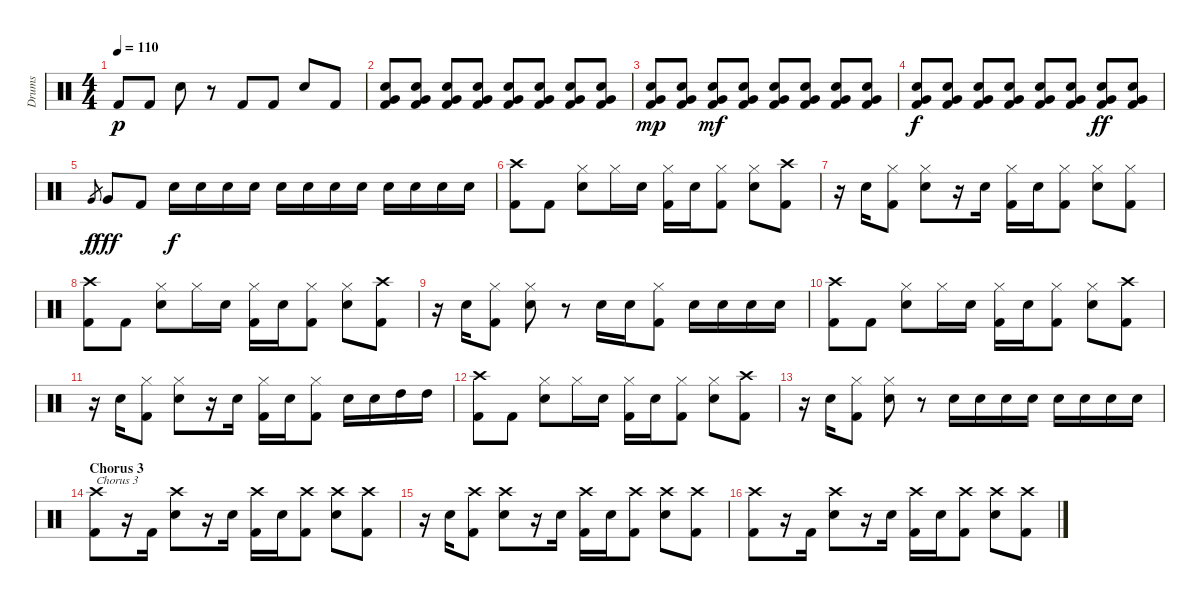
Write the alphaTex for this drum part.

\track ("Drums" "Drums") {instrument percussion}
\staff {score}
\articulation defaults
\ts (4 4)
\tempo 110
\clef neutral
\ks c "Kick (hit) 2".8{dy p} "Kick (hit) 2".8 "Electric Snare (hit)".8
r.8 "Kick (hit) 2".8 "Kick (hit) 2".8 "Electric Snare (hit)".8 "Kick (hit) 2".8 |
("Electric Snare (hit)" "Very Low Tom (hit)" "Kick (hit) 2").8 ("Electric Snare (hit)" "Very Low Tom (hit)" "Kick (hit) 2").8 ("Electric Snare (hit)" "Very Low Tom (hit)" "Kick (hit) 2").8 ("Electric Snare (hit)" "Very Low Tom (hit)" "Kick (hit) 2").8 ("Electric Snare (hit)" "Very Low Tom (hit)" "Kick (hit) 2").8 ("Electric Snare (hit)" "Very Low Tom (hit)" "Kick (hit) 2").8 ("Electric Snare (hit)" "Very Low Tom (hit)" "Kick (hit) 2").8 ("Electric Snare (hit)" "Very Low Tom (hit)" "Kick (hit) 2").8 |
("Electric Snare (hit)" "Very Low Tom (hit)" "Kick (hit) 2").8{dy mp} ("Electric Snare (hit)" "Very Low Tom (hit)" "Kick (hit) 2").8 ("Electric Snare (hit)" "Very Low Tom (hit)" "Kick (hit) 2").8{dy mf} ("Electric Snare (hit)" "Very Low Tom (hit)" "Kick (hit) 2").8 ("Electric Snare (hit)" "Very Low Tom (hit)" "Kick (hit) 2").8 ("Electric Snare (hit)" "Very Low Tom (hit)" "Kick (hit) 2").8 ("Electric Snare (hit)" "Very Low Tom (hit)" "Kick (hit) 2").8 ("Electric Snare (hit)" "Very Low Tom (hit)" "Kick (hit) 2").8 |
("Electric Snare (hit)" "Very Low Tom (hit)" "Kick (hit) 2").8{dy f} ("Electric Snare (hit)" "Very Low Tom (hit)" "Kick (hit) 2").8 ("Electric Snare (hit)" "Very Low Tom (hit)" "Kick (hit) 2").8 ("Electric Snare (hit)" "Very Low Tom (hit)" "Kick (hit) 2").8 ("Electric Snare (hit)" "Very Low Tom (hit)" "Kick (hit) 2").8 ("Electric Snare (hit)" "Very Low Tom (hit)" "Kick (hit) 2").8 ("Electric Snare (hit)" "Very Low Tom (hit)" "Kick (hit) 2").8{dy ff} ("Electric Snare (hit)" "Very Low Tom (hit)" "Kick (hit) 2").8 |
"Very Low Tom (hit)".8{gr dy f} "Very Low Tom (hit)".8{dy fff} "Kick (hit) 2".8 "Electric Snare (hit)".16{dy f} "Electric Snare (hit)".16 "Electric Snare (hit)".16 "Electric Snare (hit)".16 "Electric Snare (hit)".16 "Electric Snare (hit)".16 "Electric Snare (hit)".16 "Electric Snare (hit)".16 "Electric Snare (hit)".16 "Electric Snare (hit)".16 "Electric Snare (hit)".16 "Electric Snare (hit)".16 |
("Crash high (hit)" "Kick (hit) 2").8 "Kick (hit) 2".8 ("Hi-Hat (closed)" "Electric Snare (hit)").8 "Hi-Hat (closed)".16 "Electric Snare (hit)".16 ("Hi-Hat (closed)" "Kick (hit) 2").16 "Electric Snare (hit)".16 ("Hi-Hat (closed)" "Kick (hit) 2").8 ("Hi-Hat (closed)" "Electric Snare (hit)").8 ("Crash high (hit)" "Kick (hit) 2").8 |
r.16 "Electric Snare (hit)".16 ("Hi-Hat (closed)" "Kick (hit) 2").8 ("Hi-Hat (closed)" "Electric Snare (hit)").8 r.16 "Electric Snare (hit)".16 ("Hi-Hat (closed)" "Kick (hit) 2").16 "Electric Snare (hit)".16 ("Hi-Hat (closed)" "Kick (hit) 2").8 ("Hi-Hat (closed)" "Electric Snare (hit)").8 ("Hi-Hat (closed)" "Kick (hit) 2").8 |
("Crash high (hit)" "Kick (hit) 2").8 "Kick (hit) 2".8 ("Hi-Hat (closed)" "Electric Snare (hit)").8 "Hi-Hat (closed)".16 "Electric Snare (hit)".16 ("Hi-Hat (closed)" "Kick (hit) 2").16 "Electric Snare (hit)".16 ("Hi-Hat (closed)" "Kick (hit) 2").8 ("Hi-Hat (closed)" "Electric Snare (hit)").8 ("Crash high (hit)" "Kick (hit) 2").8 |
r.16 "Electric Snare (hit)".16 ("Hi-Hat (closed)" "Kick (hit) 2").8 ("Hi-Hat (closed)" "Electric Snare (hit)").8 r.8 "Electric Snare (hit)".16 "Electric Snare (hit)".16 ("Hi-Hat (closed)" "Kick (hit) 2").8 "Electric Snare (hit)".16 "Electric Snare (hit)".16 "Electric Snare (hit)".16 "Electric Snare (hit)".16 |
("Crash high (hit)" "Kick (hit) 2").8 "Kick (hit) 2".8 ("Hi-Hat (closed)" "Electric Snare (hit)").8 "Hi-Hat (closed)".16 "Electric Snare (hit)".16 ("Hi-Hat (closed)" "Kick (hit) 2").16 "Electric Snare (hit)".16 ("Hi-Hat (closed)" "Kick (hit) 2").8 ("Hi-Hat (closed)" "Electric Snare (hit)").8 ("Crash high (hit)" "Kick (hit) 2").8 |
r.16 "Electric Snare (hit)".16 ("Hi-Hat (closed)" "Kick (hit) 2").8 ("Hi-Hat (closed)" "Electric Snare (hit)").8 r.16 "Electric Snare (hit)".16 ("Hi-Hat (closed)" "Kick (hit) 2").16 "Electric Snare (hit)".16 ("Hi-Hat (closed)" "Kick (hit) 2").8 "Electric Snare (hit)".16 "Electric Snare (hit)".16 "High Tom (hit)".16 "High Tom (hit)".16 |
("Crash high (hit)" "Kick (hit) 2").8 "Kick (hit) 2".8 ("Hi-Hat (closed)" "Electric Snare (hit)").8 "Hi-Hat (closed)".16 "Electric Snare (hit)".16 ("Hi-Hat (closed)" "Kick (hit) 2").16 "Electric Snare (hit)".16 ("Hi-Hat (closed)" "Kick (hit) 2").8 ("Hi-Hat (closed)" "Electric Snare (hit)").8 ("Crash high (hit)" "Kick (hit) 2").8 |
r.16 "Electric Snare (hit)".16 ("Hi-Hat (closed)" "Kick (hit) 2").8 ("Hi-Hat (closed)" "Electric Snare (hit)").8 r.8 "Electric Snare (hit)".16 "Electric Snare (hit)".16 "Electric Snare (hit)".16 "Electric Snare (hit)".16 "Electric Snare (hit)".16 "Electric Snare (hit)".16 "Electric Snare (hit)".16 "Electric Snare (hit)".16 |
\section ("" "Chorus 3")
("Crash high (hit)" "Kick (hit) 2").8{txt "Chorus 3"} r.16 "Kick (hit) 2".16 ("Crash high (hit)" "Electric Snare (hit)").8 r.16 "Electric Snare (hit)".16 ("Crash high (hit)" "Kick (hit) 2").16 "Electric Snare (hit)".16 ("Crash high (hit)" "Kick (hit) 2").8 ("Crash high (hit)" "Electric Snare (hit)").8 ("Crash high (hit)" "Kick (hit) 2").8 |
r.16 "Electric Snare (hit)".16 ("Crash high (hit)" "Kick (hit) 2").8 ("Crash high (hit)" "Electric Snare (hit)").8 r.16 "Electric Snare (hit)".16 ("Crash high (hit)" "Kick (hit) 2").16 "Electric Snare (hit)".16 ("Crash high (hit)" "Kick (hit) 2").8 ("Crash high (hit)" "Electric Snare (hit)").8 ("Crash high (hit)" "Kick (hit) 2").8 |
("Crash high (hit)" "Kick (hit) 2").8 r.16 "Kick (hit) 2".16 ("Crash high (hit)" "Electric Snare (hit)").8 r.16 "Electric Snare (hit)".16 ("Crash high (hit)" "Kick (hit) 2").16 "Electric Snare (hit)".16 ("Crash high (hit)" "Kick (hit) 2").8 ("Crash high (hit)" "Electric Snare (hit)").8 ("Crash high (hit)" "Kick (hit) 2").8
